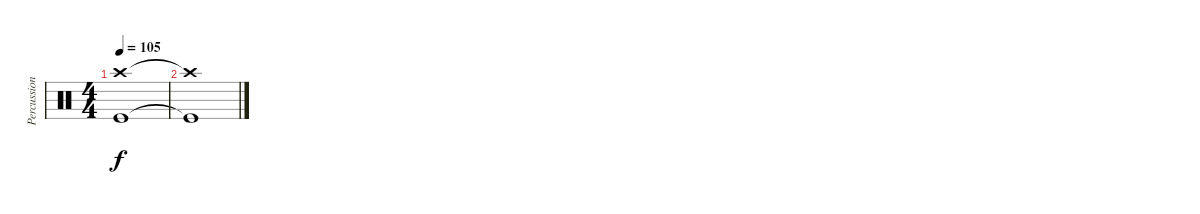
\track ("Percussion" "Percussion") {instrument percussion}
\staff {score}
\articulation defaults
\ts (4 4)
\tempo 105
\clef neutral
\ks c
("Kick (hit)" "Crash high (hit)").1{dy f} |
("Kick (hit)"{t} "Crash high (hit)"{t}).1
